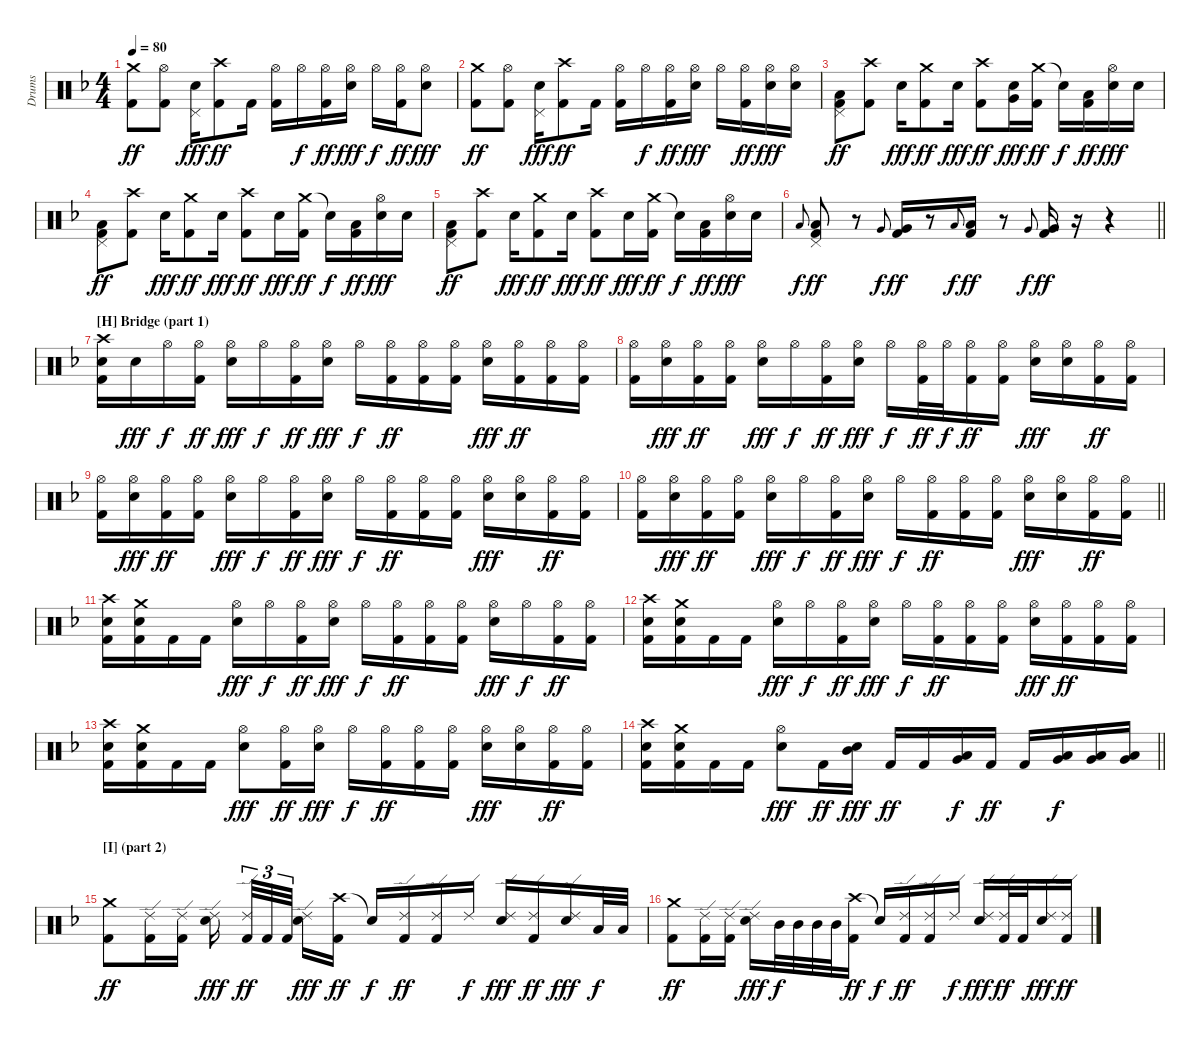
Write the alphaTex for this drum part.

\track ("Drums" "Drums") {instrument percussion}
\staff {score}
\articulation defaults
\ts (4 4)
\tempo 80
\clef neutral
\ks dminor
("Crash medium (hit)" "Kick (hit) 2").8{dy ff} ("Hi-Hat (open)" "Kick (hit) 2").8 ("Pedal Hi-Hat (hit)" "Electric Snare (hit)").16{dy fff} ("Crash high (hit)" "Kick (hit) 2").8{dy ff} "Kick (hit) 2".16 ("Hi-Hat (open)" "Kick (hit) 2").16 "Hi-Hat (open)".16{dy f} ("Hi-Hat (open)" "Kick (hit) 2").16{dy ff} ("Hi-Hat (open)" "Electric Snare (hit)").16{dy fff} "Hi-Hat (open)".16{dy f} ("Hi-Hat (open)" "Kick (hit) 2").16{dy ff} ("Hi-Hat (open)" "Electric Snare (hit)").8{dy fff} |
("Crash medium (hit)" "Kick (hit) 2").8{dy ff} ("Hi-Hat (open)" "Kick (hit) 2").8 ("Pedal Hi-Hat (hit)" "Electric Snare (hit)").16{dy fff} ("Crash high (hit)" "Kick (hit) 2").8{dy ff} "Kick (hit) 2".16 ("Hi-Hat (open)" "Kick (hit) 2").16 "Hi-Hat (open)".16{dy f} ("Hi-Hat (open)" "Kick (hit) 2").16{dy ff} ("Hi-Hat (open)" "Electric Snare (hit)").16{dy fff} "Hi-Hat (open)".16 ("Hi-Hat (open)" "Kick (hit) 2").16{dy ff} ("Hi-Hat (open)" "Electric Snare (hit)").16{dy fff} ("Hi-Hat (open)" "Electric Snare (hit)").16 |
("Pedal Hi-Hat (hit)" "Low Floor Tom (hit)" "Kick (hit) 2").8{dy ff} ("Crash high (hit)" "Kick (hit) 2").8 "Electric Snare (hit)".16{dy fff} ("Crash medium (hit)" "Kick (hit) 2").8{dy ff} "Electric Snare (hit)".16{dy fff} ("Crash high (hit)" "Kick (hit) 2").8{dy ff} ("Very Low Tom (hit)" "Electric Snare (hit)").16{dy fff} ("Crash medium (hit)" "Kick (hit) 2").16{dy ff} "Snare (hit)"{t}.16{dy f} ("Low Floor Tom (hit)" "Kick (hit) 2").16{dy ff} ("Hi-Hat (open)" "Electric Snare (hit)").16{dy fff} "Electric Snare (hit)".16 |
("Pedal Hi-Hat (hit)" "Low Floor Tom (hit)" "Kick (hit) 2").8{dy ff} ("Crash high (hit)" "Kick (hit) 2").8 "Electric Snare (hit)".16{dy fff} ("Crash medium (hit)" "Kick (hit) 2").8{dy ff} "Electric Snare (hit)".16{dy fff} ("Crash high (hit)" "Kick (hit) 2").8{dy ff} "Electric Snare (hit)".16{dy fff} ("Crash medium (hit)" "Kick (hit) 2").16{dy ff} "Snare (hit)"{t}.16{dy f} ("Low Floor Tom (hit)" "Kick (hit) 2").16{dy ff} ("Hi-Hat (open)" "Electric Snare (hit)").16{dy fff} "Electric Snare (hit)".16 |
("Pedal Hi-Hat (hit)" "Low Floor Tom (hit)" "Kick (hit) 2").8{dy ff} ("Crash high (hit)" "Kick (hit) 2").8 "Electric Snare (hit)".16{dy fff} ("Crash medium (hit)" "Kick (hit) 2").8{dy ff} "Electric Snare (hit)".16{dy fff} ("Crash high (hit)" "Kick (hit) 2").8{dy ff} "Electric Snare (hit)".16{dy fff} ("Crash medium (hit)" "Kick (hit) 2").16{dy ff} "Snare (hit)"{t}.16{dy f} ("Low Floor Tom (hit)" "Kick (hit) 2").16{dy ff} ("Hi-Hat (open)" "Electric Snare (hit)").16{dy fff} "Electric Snare (hit)".16 |
\barLineRight lightlight "Low Floor Tom (hit)".8{gr onbeat dy f}
("Pedal Hi-Hat (hit)" "Low Floor Tom (hit)" "Kick (hit) 2").8{dy ff} r.8 "Very Low Tom (hit)".8{gr onbeat dy f} ("Very Low Tom (hit)" "Kick (hit) 2").16{dy ff} r.8 "Low Floor Tom (hit)".8{gr onbeat dy f} ("Low Floor Tom (hit)" "Kick (hit) 2").16{dy ff} r.8 "Very Low Tom (hit)".8{gr onbeat dy f} ("Very Low Tom (hit)" "Kick (hit) 2").16{dy ff} r.16 r.4 |
\section ("" "[H] Bridge (part 1)")
("Crash high (hit)" "Electric Snare (hit)" "Kick (hit) 2").16 "Electric Snare (hit)".16{dy fff} "Hi-Hat (open)".16{dy f} ("Hi-Hat (open)" "Kick (hit) 2").16{dy ff} ("Hi-Hat (open)" "Electric Snare (hit)").16{dy fff} "Hi-Hat (open)".16{dy f} ("Hi-Hat (open)" "Kick (hit) 2").16{dy ff} ("Hi-Hat (open)" "Electric Snare (hit)").16{dy fff} "Hi-Hat (open)".16{dy f} ("Hi-Hat (open)" "Kick (hit) 2").16{dy ff} ("Hi-Hat (open)" "Kick (hit) 2").16 ("Hi-Hat (open)" "Kick (hit) 2").16 ("Hi-Hat (open)" "Electric Snare (hit)").16{dy fff} ("Hi-Hat (open)" "Kick (hit) 2").16{dy ff} ("Hi-Hat (open)" "Kick (hit) 2").16 ("Hi-Hat (open)" "Kick (hit) 2").16 |
("Hi-Hat (open)" "Kick (hit) 2").16 ("Hi-Hat (open)" "Electric Snare (hit)").16{dy fff} ("Hi-Hat (open)" "Kick (hit) 2").16{dy ff} ("Hi-Hat (open)" "Kick (hit) 2").16 ("Hi-Hat (open)" "Electric Snare (hit)").16{dy fff} "Hi-Hat (open)".16{dy f} ("Hi-Hat (open)" "Kick (hit) 2").16{dy ff} ("Hi-Hat (open)" "Electric Snare (hit)").16{dy fff} "Hi-Hat (open)".16{dy f} ("Hi-Hat (open)" "Kick (hit) 2").32{dy ff} "Hi-Hat (open)".32{dy f} ("Hi-Hat (open)" "Kick (hit) 2").16{dy ff} ("Hi-Hat (open)" "Kick (hit) 2").16 ("Hi-Hat (open)" "Electric Snare (hit)").16{dy fff} ("Hi-Hat (open)" "Electric Snare (hit)").16 ("Hi-Hat (open)" "Kick (hit) 2").16{dy ff} ("Hi-Hat (open)" "Kick (hit) 2").16 |
("Hi-Hat (open)" "Kick (hit) 2").16 ("Hi-Hat (open)" "Electric Snare (hit)").16{dy fff} ("Hi-Hat (open)" "Kick (hit) 2").16{dy ff} ("Hi-Hat (open)" "Kick (hit) 2").16 ("Hi-Hat (open)" "Electric Snare (hit)").16{dy fff} "Hi-Hat (open)".16{dy f} ("Hi-Hat (open)" "Kick (hit) 2").16{dy ff} ("Hi-Hat (open)" "Electric Snare (hit)").16{dy fff} "Hi-Hat (open)".16{dy f} ("Hi-Hat (open)" "Kick (hit) 2").16{dy ff} ("Hi-Hat (open)" "Kick (hit) 2").16 ("Hi-Hat (open)" "Kick (hit) 2").16 ("Hi-Hat (open)" "Electric Snare (hit)").16{dy fff} ("Hi-Hat (open)" "Electric Snare (hit)").16 ("Hi-Hat (open)" "Kick (hit) 2").16{dy ff} ("Hi-Hat (open)" "Kick (hit) 2").16 |
\barLineRight lightlight
("Hi-Hat (open)" "Kick (hit) 2").16 ("Hi-Hat (open)" "Electric Snare (hit)").16{dy fff} ("Hi-Hat (open)" "Kick (hit) 2").16{dy ff} ("Hi-Hat (open)" "Kick (hit) 2").16 ("Hi-Hat (open)" "Electric Snare (hit)").16{dy fff} "Hi-Hat (open)".16{dy f} ("Hi-Hat (open)" "Kick (hit) 2").16{dy ff} ("Hi-Hat (open)" "Electric Snare (hit)").16{dy fff} "Hi-Hat (open)".16{dy f} ("Hi-Hat (open)" "Kick (hit) 2").16{dy ff} ("Hi-Hat (open)" "Kick (hit) 2").16 ("Hi-Hat (open)" "Kick (hit) 2").16 ("Hi-Hat (open)" "Electric Snare (hit)").16{dy fff} ("Hi-Hat (open)" "Electric Snare (hit)").16 ("Hi-Hat (open)" "Kick (hit) 2").16{dy ff} ("Hi-Hat (open)" "Kick (hit) 2").16 |
("Crash high (hit)" "Electric Snare (hit)" "Kick (hit) 2").16 ("Crash medium (hit)" "Electric Snare (hit)" "Kick (hit) 2").16 "Kick (hit) 2".16 "Kick (hit) 2".16 ("Hi-Hat (open)" "Electric Snare (hit)").16{dy fff} "Hi-Hat (open)".16{dy f} ("Hi-Hat (open)" "Kick (hit) 2").16{dy ff} ("Hi-Hat (open)" "Electric Snare (hit)").16{dy fff} "Hi-Hat (open)".16{dy f} ("Hi-Hat (open)" "Kick (hit) 2").16{dy ff} ("Hi-Hat (open)" "Kick (hit) 2").16 ("Hi-Hat (open)" "Kick (hit) 2").16 ("Hi-Hat (open)" "Electric Snare (hit)").16{dy fff} "Hi-Hat (open)".16{dy f} ("Hi-Hat (open)" "Kick (hit) 2").16{dy ff} ("Hi-Hat (open)" "Kick (hit) 2").16 |
("Crash high (hit)" "Electric Snare (hit)" "Kick (hit) 2").16 ("Crash medium (hit)" "Electric Snare (hit)" "Kick (hit) 2").16 "Kick (hit) 2".16 "Kick (hit) 2".16 ("Hi-Hat (open)" "Electric Snare (hit)").16{dy fff} "Hi-Hat (open)".16{dy f} ("Hi-Hat (open)" "Kick (hit) 2").16{dy ff} ("Hi-Hat (open)" "Electric Snare (hit)").16{dy fff} "Hi-Hat (open)".16{dy f} ("Hi-Hat (open)" "Kick (hit) 2").16{dy ff} ("Hi-Hat (open)" "Kick (hit) 2").16 ("Hi-Hat (open)" "Kick (hit) 2").16 ("Hi-Hat (open)" "Electric Snare (hit)").16{dy fff} ("Hi-Hat (open)" "Kick (hit) 2").16{dy ff} ("Hi-Hat (open)" "Kick (hit) 2").16 ("Hi-Hat (open)" "Kick (hit) 2").16 |
("Crash high (hit)" "Electric Snare (hit)" "Kick (hit) 2").16 ("Crash medium (hit)" "Electric Snare (hit)" "Kick (hit) 2").16 "Kick (hit) 2".16 "Kick (hit) 2".16 ("Hi-Hat (open)" "Electric Snare (hit)").8{dy fff} ("Hi-Hat (open)" "Kick (hit) 2").16{dy ff} ("Hi-Hat (open)" "Electric Snare (hit)").16{dy fff} "Hi-Hat (open)".16{dy f} ("Hi-Hat (open)" "Kick (hit) 2").16{dy ff} ("Hi-Hat (open)" "Kick (hit) 2").16 ("Hi-Hat (open)" "Kick (hit) 2").16 ("Hi-Hat (open)" "Electric Snare (hit)").16{dy fff} ("Hi-Hat (open)" "Electric Snare (hit)").16 ("Hi-Hat (open)" "Kick (hit) 2").16{dy ff} ("Hi-Hat (open)" "Kick (hit) 2").16 |
\barLineRight lightlight
("Crash high (hit)" "Electric Snare (hit)" "Kick (hit) 2").16 ("Crash medium (hit)" "Electric Snare (hit)" "Kick (hit) 2").16 "Kick (hit) 2".16 "Kick (hit) 2".16 ("Hi-Hat (open)" "Electric Snare (hit)").8{dy fff} "Kick (hit) 2".16{dy ff} ("Mid Tom (hit)" "Electric Snare (hit)").16{dy fff} "Kick (hit) 2".16{dy ff} "Kick (hit) 2".16 ("Low Tom (hit)" "Very Low Tom (hit)").16{dy f} "Kick (hit) 2".16{dy ff} "Kick (hit) 2".16 ("Very Low Tom (hit)" "Low Floor Tom (hit)").16{dy f} ("Very Low Tom (hit)" "Low Floor Tom (hit)").16 ("Very Low Tom (hit)" "Low Floor Tom (hit)").16 |
\section ("" "[I] (part 2)")
("Crash medium (hit)" "Kick (hit) 2").8{dy ff} ("Ride (edge) 2" "Kick (hit) 2").16 ("Ride (edge) 2" "Kick (hit) 2").16 ("Ride (edge) 2" "Electric Snare (hit)").16{dy fff beam splitsecondary} ("Ride (edge) 2" "Kick (hit) 2").32{tu (3 2) dy ff} "Kick (hit) 2".32{tu (3 2)} "Kick (hit) 2".32{tu (3 2) beam splitsecondary} ("Ride (edge) 2" "Electric Snare (hit)").16{dy fff} ("Crash high (hit)" "Kick (hit) 2").16{dy ff} "Snare (hit)"{t}.16{dy f} ("Ride (edge) 2" "Kick (hit) 2").16{dy ff} ("Ride (edge) 2" "Kick (hit) 2").16 "Ride (edge) 2".16{dy f} ("Ride (edge) 2" "Electric Snare (hit)").16{dy fff} ("Ride (edge) 2" "Kick (hit) 2").16{dy ff} ("Ride (edge) 2" "Electric Snare (hit)").16{dy fff} "Low Tom (hit)".32{dy f} "Low Tom (hit)".32 |
("Crash medium (hit)" "Kick (hit) 2").8{dy ff} ("Ride (edge) 2" "Kick (hit) 2").16 ("Ride (edge) 2" "Kick (hit) 2").16 ("Ride (edge) 2" "Electric Snare (hit)").16{dy fff} "Mid Tom (hit)".32{dy f} "Mid Tom (hit)".32 "Mid Tom (hit)".32 "Mid Tom (hit)".32 ("Crash high (hit)" "Kick (hit) 2").16{dy ff} "Snare (hit)"{t}.16{dy f} ("Ride (edge) 2" "Kick (hit) 2").16{dy ff} ("Ride (edge) 2" "Kick (hit) 2").16 "Ride (edge) 2".16{dy f} ("Ride (edge) 2" "Electric Snare (hit)").16{dy fff} ("Ride (edge) 2" "Kick (hit) 2").32{dy ff} "Kick (hit) 2".32 ("Ride (edge) 2" "Electric Snare (hit)").16{dy fff} ("Ride (edge) 2" "Kick (hit) 2").16{dy ff}
